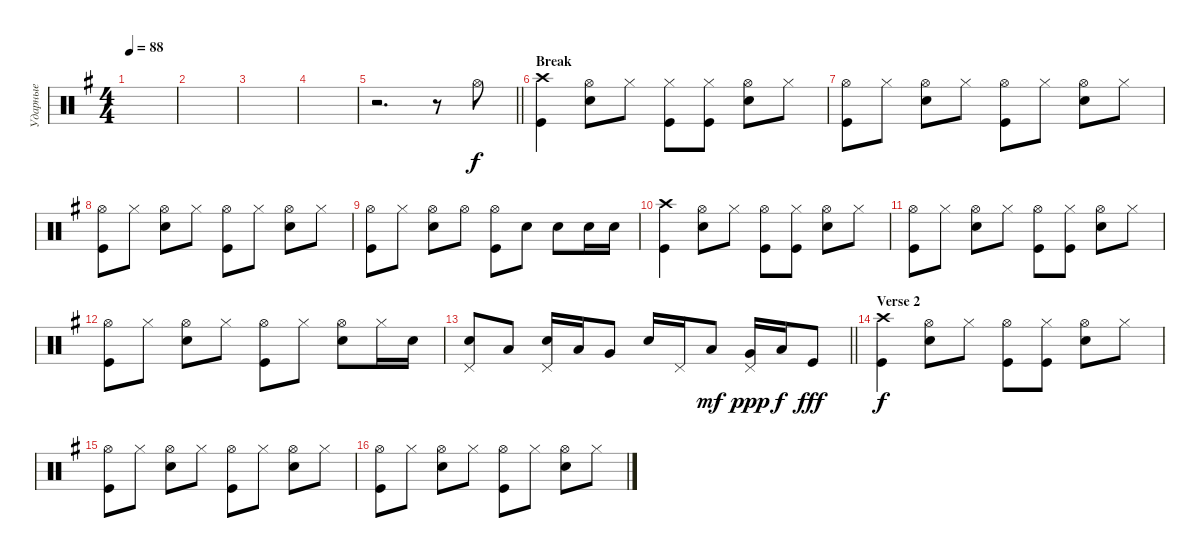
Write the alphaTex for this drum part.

\track ("Ударные" "Ударные") {instrument percussion}
\staff {score}
\articulation defaults
\ts (4 4)
\tempo 88
\clef neutral
\ks eminor
|
|
|
|
\barLineRight lightlight
r.2{d} r.8 "Hi-Hat (open)".8 |
\section ("" "Break")
("Kick (hit)" "Crash high (hit)").4 ("Snare (hit) 2" "Hi-Hat (open)").8 "Hi-Hat (closed)".8 ("Hi-Hat (closed)" "Kick (hit)").8 ("Hi-Hat (closed)" "Kick (hit)").8 ("Snare (hit) 2" "Hi-Hat (open)").8 "Hi-Hat (closed)".8 |
("Kick (hit)" "Hi-Hat (open)").8 "Hi-Hat (closed)".8 ("Hi-Hat (open)" "Snare (hit) 2").8 "Hi-Hat (closed)".8 ("Kick (hit)" "Hi-Hat (open)").8 "Hi-Hat (closed)".8 ("Hi-Hat (open)" "Snare (hit) 2").8 "Hi-Hat (closed)".8 |
("Kick (hit)" "Hi-Hat (open)").8 "Hi-Hat (closed)".8 ("Hi-Hat (open)" "Snare (hit) 2").8 "Hi-Hat (closed)".8 ("Kick (hit)" "Hi-Hat (open)").8 "Hi-Hat (closed)".8 ("Hi-Hat (open)" "Snare (hit) 2").8 "Hi-Hat (closed)".8 |
("Kick (hit)" "Hi-Hat (open)").8 "Hi-Hat (closed)".8 ("Snare (hit) 2" "Hi-Hat (open)").8 "Hi-Hat (open)".8 ("Kick (hit)" "Hi-Hat (open)").8 "Snare (hit) 2".8 "Snare (hit) 2".8 "Snare (hit) 2".16 "Snare (hit) 2".16 |
("Kick (hit)" "Crash high (hit)").4 ("Snare (hit) 2" "Hi-Hat (open)").8 "Hi-Hat (closed)".8 ("Hi-Hat (open)" "Kick (hit)").8 ("Hi-Hat (closed)" "Kick (hit)").8 ("Snare (hit) 2" "Hi-Hat (open)").8 "Hi-Hat (closed)".8 |
("Kick (hit)" "Hi-Hat (open)").8 "Hi-Hat (closed)".8 ("Hi-Hat (open)" "Snare (hit) 2").8 "Hi-Hat (closed)".8 ("Kick (hit)" "Hi-Hat (open)").8 ("Hi-Hat (closed)" "Kick (hit)").8 ("Hi-Hat (open)" "Snare (hit) 2").8 "Hi-Hat (closed)".8 |
("Kick (hit)" "Hi-Hat (open)").8 "Hi-Hat (closed)".8 ("Hi-Hat (open)" "Snare (hit) 2").8 "Hi-Hat (closed)".8 ("Kick (hit)" "Hi-Hat (open)").8 "Hi-Hat (closed)".8 ("Hi-Hat (open)" "Snare (hit) 2").8 "Hi-Hat (closed)".16 "Snare (hit) 2".16 |
\barLineRight lightlight
("Snare (hit) 2" "Pedal Hi-Hat (hit)").8 "Low Tom (hit)".8 ("Snare (hit) 2" "Pedal Hi-Hat (hit)").16 "Low Tom (hit)".16 "Very Low Tom (hit)".8 "Snare (hit) 2".16 "Pedal Hi-Hat (hit)".16 "Low Tom (hit)".8{dy mf} ("Pedal Hi-Hat (hit)" "Very Low Tom (hit)").16{dy ppp} "Low Floor Tom (hit)".16{dy f} "Kick (hit)".8{dy fff} |
\section ("" "Verse 2")
("Kick (hit)" "Crash high (hit)").4{dy f} ("Snare (hit) 2" "Hi-Hat (open)").8 "Hi-Hat (closed)".8 ("Hi-Hat (open)" "Kick (hit)").8 ("Hi-Hat (closed)" "Kick (hit)").8 ("Snare (hit) 2" "Hi-Hat (open)").8 "Hi-Hat (closed)".8 |
("Kick (hit)" "Hi-Hat (open)").8 "Hi-Hat (closed)".8 ("Hi-Hat (open)" "Snare (hit) 2").8 "Hi-Hat (closed)".8 ("Kick (hit)" "Hi-Hat (open)").8 "Hi-Hat (closed)".8 ("Hi-Hat (open)" "Snare (hit) 2").8 "Hi-Hat (closed)".8 |
("Kick (hit)" "Hi-Hat (open)").8 "Hi-Hat (closed)".8 ("Hi-Hat (open)" "Snare (hit) 2").8 "Hi-Hat (closed)".8 ("Kick (hit)" "Hi-Hat (open)").8 "Hi-Hat (closed)".8 ("Hi-Hat (open)" "Snare (hit) 2").8 "Hi-Hat (closed)".8
